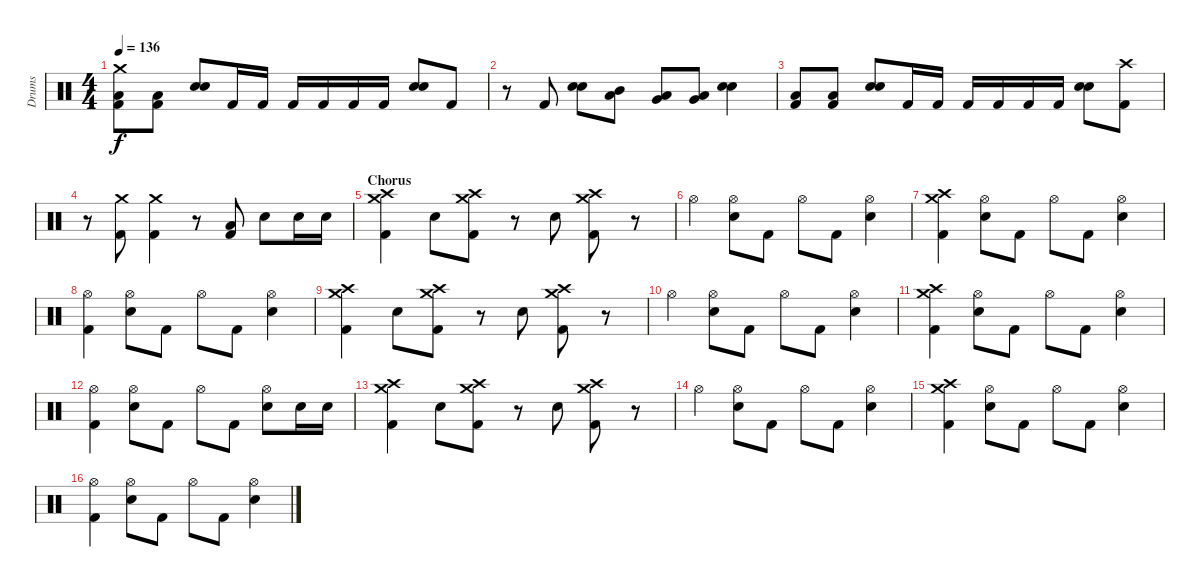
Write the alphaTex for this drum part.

\track ("Drums" "Drums") {instrument percussion}
\staff {score}
\articulation defaults
\ts (4 4)
\tempo 136
\clef neutral
\ks c
("Crash medium (hit)" "Low Tom (hit)" "Kick (hit) 2").8{dy f} ("Low Tom (hit)" "Kick (hit) 2").8 ("Electric Snare (hit)" "Electric Snare (hit)").8 "Kick (hit) 2".16 "Kick (hit) 2".16 "Kick (hit) 2".16 "Kick (hit) 2".16 "Kick (hit) 2".16 "Kick (hit) 2".16 ("Electric Snare (hit)" "Electric Snare (hit)").8 "Kick (hit) 2".8 |
r.8 "Kick (hit) 2".8 ("Electric Snare (hit)" "Electric Snare (hit)").8 ("Mid Tom (hit)" "Low Tom (hit)").8 ("Low Tom (hit)" "Very Low Tom (hit)").8 ("Very Low Tom (hit)" "Low Floor Tom (hit)").8 ("Electric Snare (hit)" "Electric Snare (hit)").4 |
("Low Tom (hit)" "Kick (hit) 2").8 ("Low Tom (hit)" "Kick (hit) 2").8 ("Electric Snare (hit)" "Electric Snare (hit)").8 "Kick (hit) 2".16 "Kick (hit) 2".16 "Kick (hit) 2".16 "Kick (hit) 2".16 "Kick (hit) 2".16 "Kick (hit) 2".16 ("Electric Snare (hit)" "Electric Snare (hit)").8 ("Crash high (hit)" "Kick (hit) 2").8 |
r.8 ("Crash medium (hit)" "Kick (hit) 2").8 ("Crash medium (hit)" "Kick (hit) 2").4 r.8 ("Low Tom (hit)" "Kick (hit) 2").8 "Electric Snare (hit)".8 "Electric Snare (hit)".16 "Electric Snare (hit)".16 |
\section ("" "Chorus")
("Crash high (hit)" "Crash medium (hit)" "Kick (hit) 2").4 "Electric Snare (hit)".8 ("Crash high (hit)" "Crash medium (hit)" "Kick (hit) 2").8 r.8 "Electric Snare (hit)".8 ("Crash high (hit)" "Crash medium (hit)" "Kick (hit) 2").8 r.8 |
"Hi-Hat (open)".4 ("Hi-Hat (open)" "Electric Snare (hit)").8 "Kick (hit) 2".8 "Hi-Hat (open)".8 "Kick (hit) 2".8 ("Hi-Hat (open)" "Electric Snare (hit)").4 |
("Crash high (hit)" "Crash medium (hit)" "Kick (hit) 2").4 ("Hi-Hat (open)" "Electric Snare (hit)").8 "Kick (hit) 2".8 "Hi-Hat (open)".8 "Kick (hit) 2".8 ("Hi-Hat (open)" "Electric Snare (hit)").4 |
("Hi-Hat (open)" "Kick (hit) 2").4 ("Hi-Hat (open)" "Electric Snare (hit)").8 "Kick (hit) 2".8 "Hi-Hat (open)".8 "Kick (hit) 2".8 ("Hi-Hat (open)" "Electric Snare (hit)").4 |
("Crash high (hit)" "Crash medium (hit)" "Kick (hit) 2").4 "Electric Snare (hit)".8 ("Crash high (hit)" "Crash medium (hit)" "Kick (hit) 2").8 r.8 "Electric Snare (hit)".8 ("Crash high (hit)" "Crash medium (hit)" "Kick (hit) 2").8 r.8 |
"Hi-Hat (open)".4 ("Hi-Hat (open)" "Electric Snare (hit)").8 "Kick (hit) 2".8 "Hi-Hat (open)".8 "Kick (hit) 2".8 ("Hi-Hat (open)" "Electric Snare (hit)").4 |
("Crash high (hit)" "Crash medium (hit)" "Kick (hit) 2").4 ("Hi-Hat (open)" "Electric Snare (hit)").8 "Kick (hit) 2".8 "Hi-Hat (open)".8 "Kick (hit) 2".8 ("Hi-Hat (open)" "Electric Snare (hit)").4 |
("Hi-Hat (open)" "Kick (hit) 2").4 ("Hi-Hat (open)" "Electric Snare (hit)").8 "Kick (hit) 2".8 "Hi-Hat (open)".8 "Kick (hit) 2".8 ("Hi-Hat (open)" "Electric Snare (hit)").8 "Electric Snare (hit)".16 "Electric Snare (hit)".16 |
("Crash high (hit)" "Crash medium (hit)" "Kick (hit) 2").4 "Electric Snare (hit)".8 ("Crash high (hit)" "Crash medium (hit)" "Kick (hit) 2").8 r.8 "Electric Snare (hit)".8 ("Crash high (hit)" "Crash medium (hit)" "Kick (hit) 2").8 r.8 |
"Hi-Hat (open)".4 ("Hi-Hat (open)" "Electric Snare (hit)").8 "Kick (hit) 2".8 "Hi-Hat (open)".8 "Kick (hit) 2".8 ("Hi-Hat (open)" "Electric Snare (hit)").4 |
("Crash high (hit)" "Crash medium (hit)" "Kick (hit) 2").4 ("Hi-Hat (open)" "Electric Snare (hit)").8 "Kick (hit) 2".8 "Hi-Hat (open)".8 "Kick (hit) 2".8 ("Hi-Hat (open)" "Electric Snare (hit)").4 |
("Hi-Hat (open)" "Kick (hit) 2").4 ("Hi-Hat (open)" "Electric Snare (hit)").8 "Kick (hit) 2".8 "Hi-Hat (open)".8 "Kick (hit) 2".8 ("Hi-Hat (open)" "Electric Snare (hit)").4
